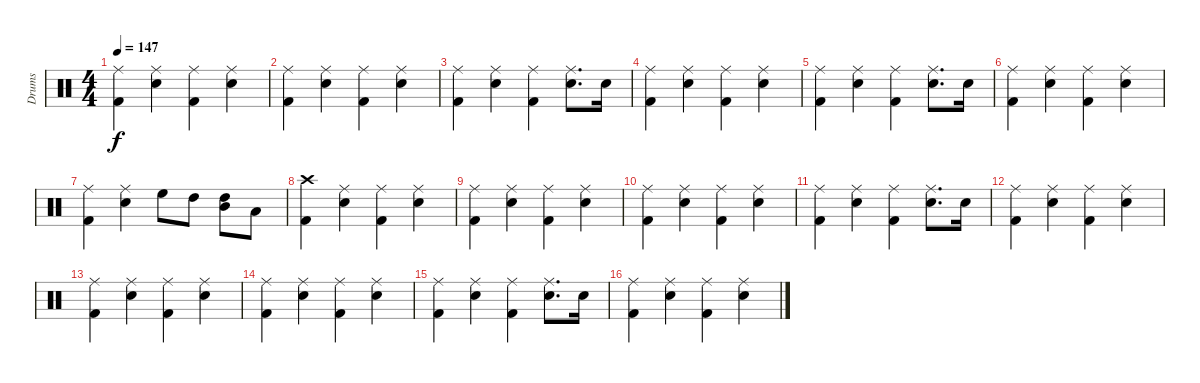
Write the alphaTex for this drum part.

\track ("Drums" "Drums") {instrument percussion}
\staff {score}
\articulation defaults
\ts (4 4)
\tempo 147
\clef neutral
\ks c
("Ride (middle)" "Kick (hit) 2").4{dy f} ("Ride (middle)" "Snare (hit) 2").4 ("Ride (middle)" "Kick (hit) 2").4 ("Ride (middle)" "Snare (hit) 2").4 |
("Ride (middle)" "Kick (hit) 2").4 ("Ride (middle)" "Snare (hit) 2").4 ("Ride (middle)" "Kick (hit) 2").4 ("Ride (middle)" "Snare (hit) 2").4 |
("Ride (middle)" "Kick (hit) 2").4 ("Ride (middle)" "Snare (hit) 2").4 ("Ride (middle)" "Kick (hit) 2").4 ("Ride (middle)" "Snare (hit) 2").8{d} "Snare (hit) 2".16 |
("Ride (middle)" "Kick (hit) 2").4 ("Ride (middle)" "Snare (hit) 2").4 ("Ride (middle)" "Kick (hit) 2").4 ("Ride (middle)" "Snare (hit) 2").4 |
("Ride (middle)" "Kick (hit) 2").4 ("Ride (middle)" "Snare (hit) 2").4 ("Ride (middle)" "Kick (hit) 2").4 ("Ride (middle)" "Snare (hit) 2").8{d} "Snare (hit) 2".16 |
("Ride (middle)" "Kick (hit) 2").4 ("Ride (middle)" "Snare (hit) 2").4 ("Ride (middle)" "Kick (hit) 2").4 ("Ride (middle)" "Snare (hit) 2").4 |
("Ride (middle)" "Kick (hit) 2").4 ("Ride (middle)" "Snare (hit) 2").4 "High Floor Tom (hit)".8 "High Tom (hit)".8 ("High Tom (hit)" "Mid Tom (hit)").8 "Low Floor Tom (hit)".8 |
("Crash high (hit)" "Kick (hit) 2").4 ("Ride (middle)" "Snare (hit) 2").4 ("Ride (middle)" "Kick (hit) 2").4 ("Ride (middle)" "Snare (hit) 2").4 |
("Ride (middle)" "Kick (hit) 2").4 ("Ride (middle)" "Snare (hit) 2").4 ("Ride (middle)" "Kick (hit) 2").4 ("Ride (middle)" "Snare (hit) 2").4 |
("Ride (middle)" "Kick (hit) 2").4 ("Ride (middle)" "Snare (hit) 2").4 ("Ride (middle)" "Kick (hit) 2").4 ("Ride (middle)" "Snare (hit) 2").4 |
("Ride (middle)" "Kick (hit) 2").4 ("Ride (middle)" "Snare (hit) 2").4 ("Ride (middle)" "Kick (hit) 2").4 ("Ride (middle)" "Snare (hit) 2").8{d} "Snare (hit) 2".16 |
("Ride (middle)" "Kick (hit) 2").4 ("Ride (middle)" "Snare (hit) 2").4 ("Ride (middle)" "Kick (hit) 2").4 ("Ride (middle)" "Snare (hit) 2").4 |
("Ride (middle)" "Kick (hit) 2").4 ("Ride (middle)" "Snare (hit) 2").4 ("Ride (middle)" "Kick (hit) 2").4 ("Ride (middle)" "Snare (hit) 2").4 |
("Ride (middle)" "Kick (hit) 2").4 ("Ride (middle)" "Snare (hit) 2").4 ("Ride (middle)" "Kick (hit) 2").4 ("Ride (middle)" "Snare (hit) 2").4 |
("Ride (middle)" "Kick (hit) 2").4 ("Ride (middle)" "Snare (hit) 2").4 ("Ride (middle)" "Kick (hit) 2").4 ("Ride (middle)" "Snare (hit) 2").8{d} "Snare (hit) 2".16 |
("Ride (middle)" "Kick (hit) 2").4 ("Ride (middle)" "Snare (hit) 2").4 ("Ride (middle)" "Kick (hit) 2").4 ("Ride (middle)" "Snare (hit) 2").4
